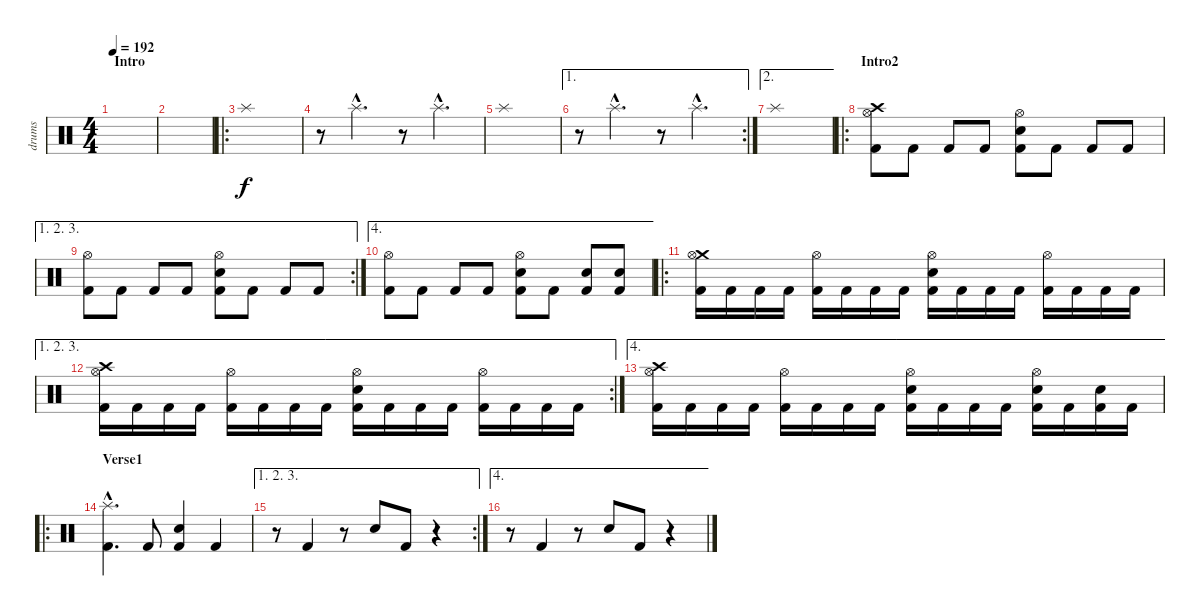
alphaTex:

\track ("drums" "drums") {instrument percussion}
\staff {score}
\articulation defaults
\ts (4 4)
\section ("" "Intro")
\tempo 192
\clef neutral
\ks c
|
|
\ro "Splash (hit)".1
|
r.8 "Splash (hit)"{hac}.4{d} r.8 "Splash (hit)"{hac}.4{d} |
"Splash (hit)".1 |
\ae 1
\rc 2
r.8 "Splash (hit)"{hac}.4{d} r.8 "Splash (hit)"{hac}.4{d} |
\ae 2 "Splash (hit)".1
|
\ro
\section ("" "Intro2")
("Crash high (hit)" "Hi-Hat (open)" "Kick (hit) 2").8 "Kick (hit) 2".8 "Kick (hit) 2".8 "Kick (hit) 2".8 ("Hi-Hat (open)" "Electric Snare (hit)" "Kick (hit) 2").8 "Kick (hit) 2".8 "Kick (hit) 2".8 "Kick (hit) 2".8 |
\ae (1 2 3)
\rc 2
("Hi-Hat (open)" "Kick (hit) 2").8 "Kick (hit) 2".8 "Kick (hit) 2".8 "Kick (hit) 2".8 ("Hi-Hat (open)" "Electric Snare (hit)" "Kick (hit) 2").8 "Kick (hit) 2".8 "Kick (hit) 2".8 "Kick (hit) 2".8 |
\ae 4
("Hi-Hat (open)" "Kick (hit) 2").8 "Kick (hit) 2".8 "Kick (hit) 2".8 "Kick (hit) 2".8 ("Hi-Hat (open)" "Electric Snare (hit)" "Kick (hit) 2").8 "Kick (hit) 2".8 ("Electric Snare (hit)" "Kick (hit) 2").8 ("Electric Snare (hit)" "Kick (hit) 2").8 |
\ro
("Crash medium (hit)" "Hi-Hat (open)" "Kick (hit) 2").16 "Kick (hit) 2".16 "Kick (hit) 2".16 "Kick (hit) 2".16 ("Hi-Hat (open)" "Kick (hit) 2").16 "Kick (hit) 2".16 "Kick (hit) 2".16 "Kick (hit) 2".16 ("Hi-Hat (open)" "Electric Snare (hit)" "Kick (hit) 2").16 "Kick (hit) 2".16 "Kick (hit) 2".16 "Kick (hit) 2".16 ("Hi-Hat (open)" "Kick (hit) 2").16 "Kick (hit) 2".16 "Kick (hit) 2".16 "Kick (hit) 2".16 |
\ae (1 2 3)
\rc 2
("Crash high (hit)" "Hi-Hat (open)" "Kick (hit) 2").16 "Kick (hit) 2".16 "Kick (hit) 2".16 "Kick (hit) 2".16 ("Hi-Hat (open)" "Kick (hit) 2").16 "Kick (hit) 2".16 "Kick (hit) 2".16 "Kick (hit) 2".16 ("Hi-Hat (open)" "Electric Snare (hit)" "Kick (hit) 2").16 "Kick (hit) 2".16 "Kick (hit) 2".16 "Kick (hit) 2".16 ("Hi-Hat (open)" "Kick (hit) 2").16 "Kick (hit) 2".16 "Kick (hit) 2".16 "Kick (hit) 2".16 |
\ae 4
("Crash high (hit)" "Hi-Hat (open)" "Kick (hit) 2").16 "Kick (hit) 2".16 "Kick (hit) 2".16 "Kick (hit) 2".16 ("Hi-Hat (open)" "Kick (hit) 2").16 "Kick (hit) 2".16 "Kick (hit) 2".16 "Kick (hit) 2".16 ("Hi-Hat (open)" "Electric Snare (hit)" "Kick (hit) 2").16 "Kick (hit) 2".16 "Kick (hit) 2".16 "Kick (hit) 2".16 ("Hi-Hat (open)" "Electric Snare (hit)" "Kick (hit) 2").16 "Kick (hit) 2".16 ("Electric Snare (hit)" "Kick (hit) 2").16 "Kick (hit) 2".16 |
\ro
\section ("" "Verse1")
("Splash (hit)"{hac} "Kick (hit) 2"{hac}).4{d} "Kick (hit) 2".8 ("Electric Snare (hit)" "Kick (hit) 2").4 "Kick (hit) 2".4 |
\ae (1 2 3)
\rc 2
r.8 "Kick (hit) 2".4 r.8 "Electric Snare (hit)".8 "Kick (hit) 2".8 r.4 |
\ae 4
r.8 "Kick (hit) 2".4 r.8 "Electric Snare (hit)".8 "Kick (hit) 2".8 r.4
